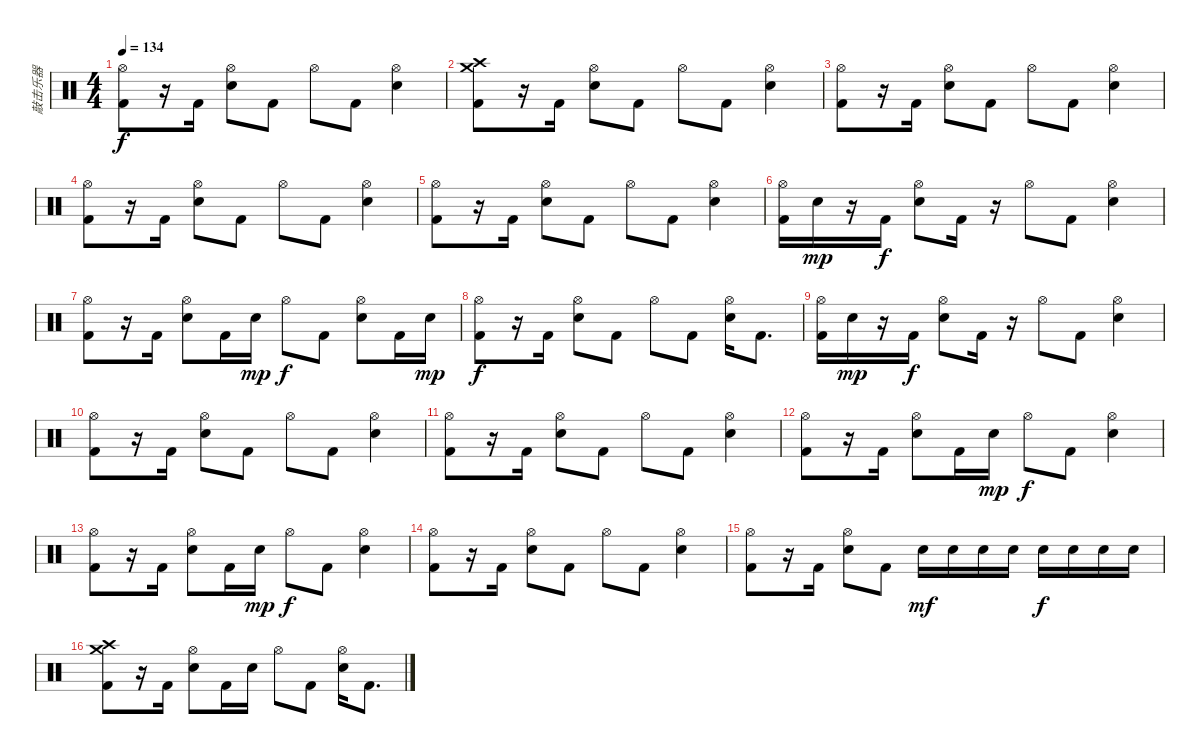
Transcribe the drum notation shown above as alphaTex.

\track ("敲击乐器" "敲击乐器") {instrument percussion}
\staff {score}
\articulation defaults
\ts (4 4)
\tempo 134
\clef neutral
\ks c
("Hi-Hat (open)" "Kick (hit) 2").8{dy f} r.16 "Kick (hit) 2".16 ("Hi-Hat (open)" "Electric Snare (hit)").8 "Kick (hit) 2".8 "Hi-Hat (open)".8 "Kick (hit) 2".8 ("Hi-Hat (open)" "Electric Snare (hit)").4 |
("Crash high (hit)" "Crash medium (hit)" "Kick (hit) 2").8 r.16 "Kick (hit) 2".16 ("Hi-Hat (open)" "Electric Snare (hit)").8 "Kick (hit) 2".8 "Hi-Hat (open)".8 "Kick (hit) 2".8 ("Hi-Hat (open)" "Electric Snare (hit)").4 |
("Hi-Hat (open)" "Kick (hit) 2").8 r.16 "Kick (hit) 2".16 ("Hi-Hat (open)" "Electric Snare (hit)").8 "Kick (hit) 2".8 "Hi-Hat (open)".8 "Kick (hit) 2".8 ("Hi-Hat (open)" "Electric Snare (hit)").4 |
("Hi-Hat (open)" "Kick (hit) 2").8 r.16 "Kick (hit) 2".16 ("Hi-Hat (open)" "Electric Snare (hit)").8 "Kick (hit) 2".8 "Hi-Hat (open)".8 "Kick (hit) 2".8 ("Hi-Hat (open)" "Electric Snare (hit)").4 |
("Hi-Hat (open)" "Kick (hit) 2").8 r.16 "Kick (hit) 2".16 ("Hi-Hat (open)" "Electric Snare (hit)").8 "Kick (hit) 2".8 "Hi-Hat (open)".8 "Kick (hit) 2".8 ("Hi-Hat (open)" "Electric Snare (hit)").4 |
("Hi-Hat (open)" "Kick (hit) 2").16 "Electric Snare (hit)".16{dy mp} r.16 "Kick (hit) 2".16{dy f} ("Hi-Hat (open)" "Electric Snare (hit)").8 "Kick (hit) 2".16 r.16 "Hi-Hat (open)".8 "Kick (hit) 2".8 ("Hi-Hat (open)" "Electric Snare (hit)").4 |
("Hi-Hat (open)" "Kick (hit) 2").8 r.16 "Kick (hit) 2".16 ("Hi-Hat (open)" "Electric Snare (hit)").8 "Kick (hit) 2".16 "Electric Snare (hit)".16{dy mp} "Hi-Hat (open)".8{dy f} "Kick (hit) 2".8 ("Hi-Hat (open)" "Electric Snare (hit)").8 "Kick (hit) 2".16 "Electric Snare (hit)".16{dy mp} |
("Hi-Hat (open)" "Kick (hit) 2").8{dy f} r.16 "Kick (hit) 2".16 ("Hi-Hat (open)" "Electric Snare (hit)").8 "Kick (hit) 2".8 "Hi-Hat (open)".8 "Kick (hit) 2".8 ("Hi-Hat (open)" "Electric Snare (hit)").16 "Kick (hit) 2".8{d} |
("Hi-Hat (open)" "Kick (hit) 2").16 "Electric Snare (hit)".16{dy mp} r.16 "Kick (hit) 2".16{dy f} ("Hi-Hat (open)" "Electric Snare (hit)").8 "Kick (hit) 2".16 r.16 "Hi-Hat (open)".8 "Kick (hit) 2".8 ("Hi-Hat (open)" "Electric Snare (hit)").4 |
("Hi-Hat (open)" "Kick (hit) 2").8 r.16 "Kick (hit) 2".16 ("Hi-Hat (open)" "Electric Snare (hit)").8 "Kick (hit) 2".8 "Hi-Hat (open)".8 "Kick (hit) 2".8 ("Hi-Hat (open)" "Electric Snare (hit)").4 |
("Hi-Hat (open)" "Kick (hit) 2").8 r.16 "Kick (hit) 2".16 ("Hi-Hat (open)" "Electric Snare (hit)").8 "Kick (hit) 2".8 "Hi-Hat (open)".8 "Kick (hit) 2".8 ("Hi-Hat (open)" "Electric Snare (hit)").4 |
("Hi-Hat (open)" "Kick (hit) 2").8 r.16 "Kick (hit) 2".16 ("Hi-Hat (open)" "Electric Snare (hit)").8 "Kick (hit) 2".16 "Electric Snare (hit)".16{dy mp} "Hi-Hat (open)".8{dy f} "Kick (hit) 2".8 ("Hi-Hat (open)" "Electric Snare (hit)").4 |
("Hi-Hat (open)" "Kick (hit) 2").8 r.16 "Kick (hit) 2".16 ("Hi-Hat (open)" "Electric Snare (hit)").8 "Kick (hit) 2".16 "Electric Snare (hit)".16{dy mp} "Hi-Hat (open)".8{dy f} "Kick (hit) 2".8 ("Hi-Hat (open)" "Electric Snare (hit)").4 |
("Hi-Hat (open)" "Kick (hit) 2").8 r.16 "Kick (hit) 2".16 ("Hi-Hat (open)" "Electric Snare (hit)").8 "Kick (hit) 2".8 "Hi-Hat (open)".8 "Kick (hit) 2".8 ("Hi-Hat (open)" "Electric Snare (hit)").4 |
("Hi-Hat (open)" "Kick (hit) 2").8 r.16 "Kick (hit) 2".16 ("Hi-Hat (open)" "Electric Snare (hit)").8 "Kick (hit) 2".8 "Electric Snare (hit)".16{dy mf} "Electric Snare (hit)".16 "Electric Snare (hit)".16 "Electric Snare (hit)".16 "Electric Snare (hit)".16{dy f} "Electric Snare (hit)".16 "Electric Snare (hit)".16 "Electric Snare (hit)".16 |
("Crash high (hit)" "Crash medium (hit)" "Kick (hit) 2").8 r.16 "Kick (hit) 2".16 ("Hi-Hat (open)" "Electric Snare (hit)").8 "Kick (hit) 2".16 "Electric Snare (hit)".16 "Hi-Hat (open)".8 "Kick (hit) 2".8 ("Hi-Hat (open)" "Electric Snare (hit)").16 "Kick (hit) 2".8{d}
